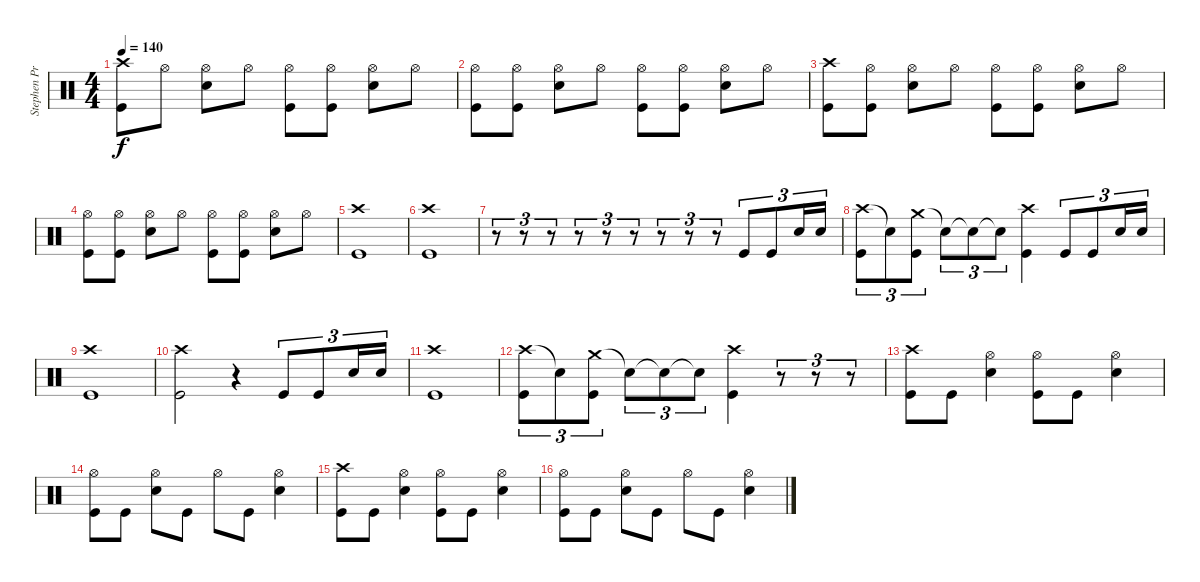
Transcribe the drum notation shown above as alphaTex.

\track ("Stephen Priestly-Drums" "Stephen Pr") {instrument percussion}
\staff {score}
\articulation defaults
\ts (4 4)
\tempo 140
\clef neutral
\ks c
("Crash high (hit)" "Kick (hit)").8{dy f} "Hi-Hat (open)".8 ("Hi-Hat (open)" "Snare (hit) 2").8 "Hi-Hat (open)".8 ("Hi-Hat (open)" "Kick (hit)").8 ("Hi-Hat (open)" "Kick (hit)").8 ("Hi-Hat (open)" "Snare (hit) 2").8 "Hi-Hat (open)".8 |
("Hi-Hat (open)" "Kick (hit)").8 ("Hi-Hat (open)" "Kick (hit)").8 ("Hi-Hat (open)" "Snare (hit) 2").8 "Hi-Hat (open)".8 ("Hi-Hat (open)" "Kick (hit)").8 ("Hi-Hat (open)" "Kick (hit)").8 ("Hi-Hat (open)" "Snare (hit) 2").8 "Hi-Hat (open)".8 |
("Crash high (hit)" "Kick (hit)").8 ("Hi-Hat (open)" "Kick (hit)").8 ("Hi-Hat (open)" "Snare (hit) 2").8 "Hi-Hat (open)".8 ("Hi-Hat (open)" "Kick (hit)").8 ("Hi-Hat (open)" "Kick (hit)").8 ("Hi-Hat (open)" "Snare (hit) 2").8 "Hi-Hat (open)".8 |
("Hi-Hat (open)" "Kick (hit)").8 ("Hi-Hat (open)" "Kick (hit)").8 ("Hi-Hat (open)" "Snare (hit) 2").8 "Hi-Hat (open)".8 ("Hi-Hat (open)" "Kick (hit)").8 ("Hi-Hat (open)" "Kick (hit)").8 ("Hi-Hat (open)" "Snare (hit) 2").8 "Hi-Hat (open)".8 |
("Crash high (hit)" "Kick (hit)").1 |
("Crash high (hit)" "Kick (hit)").1 |
r.8{tu (3 2)} r.8{tu (3 2)} r.8{tu (3 2)} r.8{tu (3 2)} r.8{tu (3 2)} r.8{tu (3 2)} r.8{tu (3 2)} r.8{tu (3 2)} r.8{tu (3 2)} "Kick (hit)".8{tu (3 2)} "Kick (hit)".8{tu (3 2)} "Snare (hit) 2".16{tu (3 2)} "Snare (hit) 2".16{tu (3 2)} |
("Crash high (hit)" "Kick (hit)").8{tu (3 2)} "Snare (hit)"{t}.8{tu (3 2)} ("Crash medium (hit)" "Kick (hit)").8{tu (3 2)} "Snare (hit)"{t}.8{tu (3 2)} "Snare (hit)"{t}.8{tu (3 2)} "Snare (hit)"{t}.8{tu (3 2)} ("Crash high (hit)" "Kick (hit)").4 "Kick (hit)".8{tu (3 2)} "Kick (hit)".8{tu (3 2)} "Snare (hit) 2".16{tu (3 2)} "Snare (hit) 2".16{tu (3 2)} |
("Crash high (hit)" "Kick (hit)").1 |
("Crash high (hit)" "Kick (hit)").2 r.4 "Kick (hit)".8{tu (3 2)} "Kick (hit)".8{tu (3 2)} "Snare (hit) 2".16{tu (3 2)} "Snare (hit) 2".16{tu (3 2)} |
("Crash high (hit)" "Kick (hit)").1 |
("Crash high (hit)" "Kick (hit)").8{tu (3 2)} "Snare (hit)"{t}.8{tu (3 2)} ("Crash medium (hit)" "Kick (hit)").8{tu (3 2)} "Snare (hit)"{t}.8{tu (3 2)} "Snare (hit)"{t}.8{tu (3 2)} "Snare (hit)"{t}.8{tu (3 2)} ("Crash high (hit)" "Kick (hit)").4 r.8{tu (3 2)} r.8{tu (3 2)} r.8{tu (3 2)} |
("Crash high (hit)" "Kick (hit)").8 "Kick (hit)".8 ("Hi-Hat (open)" "Snare (hit) 2").4 ("Hi-Hat (open)" "Kick (hit)").8 "Kick (hit)".8 ("Hi-Hat (open)" "Snare (hit) 2").4 |
("Hi-Hat (open)" "Kick (hit)").8 "Kick (hit)".8 ("Hi-Hat (open)" "Snare (hit) 2").8 "Kick (hit)".8 "Hi-Hat (open)".8 "Kick (hit)".8 ("Hi-Hat (open)" "Snare (hit) 2").4 |
("Crash high (hit)" "Kick (hit)").8 "Kick (hit)".8 ("Hi-Hat (open)" "Snare (hit) 2").4 ("Hi-Hat (open)" "Kick (hit)").8 "Kick (hit)".8 ("Hi-Hat (open)" "Snare (hit) 2").4 |
("Hi-Hat (open)" "Kick (hit)").8 "Kick (hit)".8 ("Hi-Hat (open)" "Snare (hit) 2").8 "Kick (hit)".8 "Hi-Hat (open)".8 "Kick (hit)".8 ("Hi-Hat (open)" "Snare (hit) 2").4
